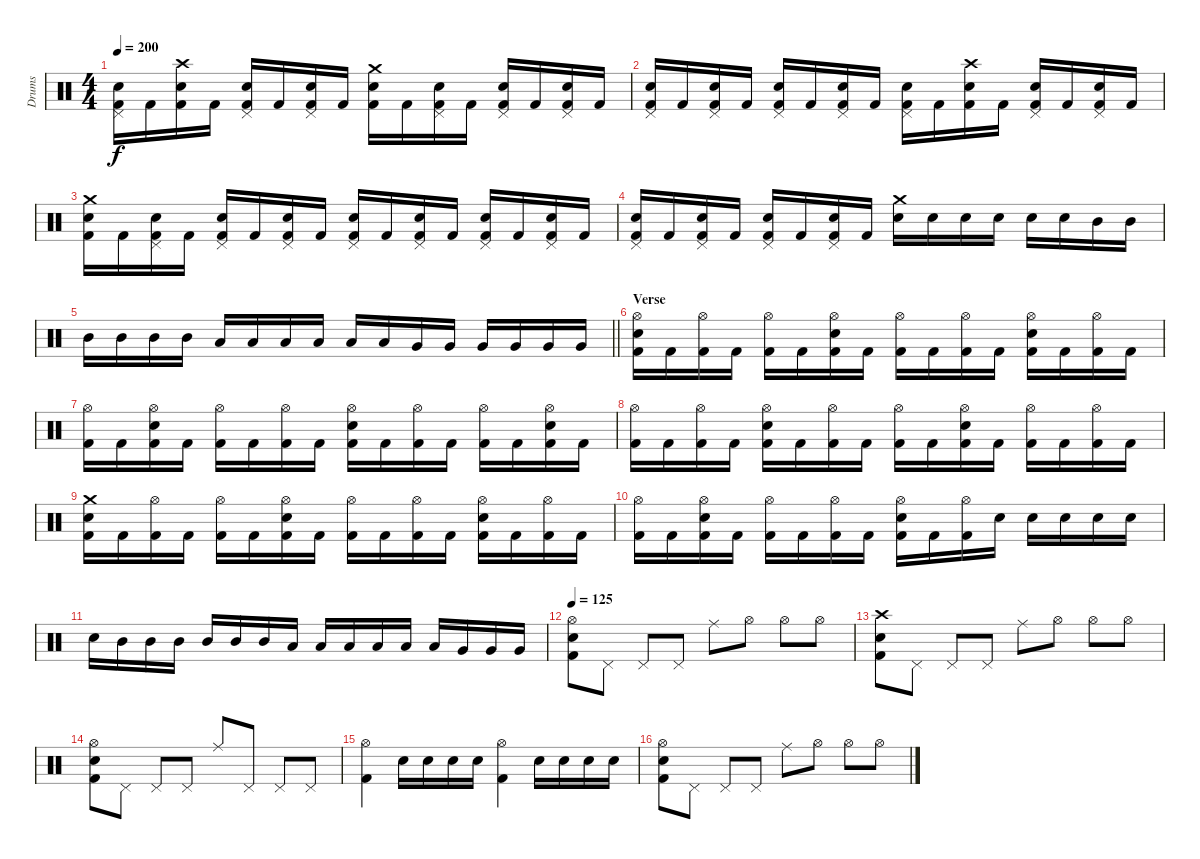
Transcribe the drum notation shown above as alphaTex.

\track ("Drums" "Drums") {instrument percussion}
\staff {score}
\articulation defaults
\ts (4 4)
\tempo 200
\clef neutral
\ks c
("Pedal Hi-Hat (hit)" "Electric Snare (hit)" "Kick (hit) 2").16{dy f} "Kick (hit) 2".16 ("Crash high (hit)" "Electric Snare (hit)" "Kick (hit) 2").16 "Kick (hit) 2".16 ("Pedal Hi-Hat (hit)" "Electric Snare (hit)" "Kick (hit) 2").16 "Kick (hit) 2".16 ("Pedal Hi-Hat (hit)" "Electric Snare (hit)" "Kick (hit) 2").16 "Kick (hit) 2".16 ("Crash medium (hit)" "Electric Snare (hit)" "Kick (hit) 2").16 "Kick (hit) 2".16 ("Pedal Hi-Hat (hit)" "Electric Snare (hit)" "Kick (hit) 2").16 "Kick (hit) 2".16 ("Pedal Hi-Hat (hit)" "Electric Snare (hit)" "Kick (hit) 2").16 "Kick (hit) 2".16 ("Pedal Hi-Hat (hit)" "Electric Snare (hit)" "Kick (hit) 2").16 "Kick (hit) 2".16 |
("Pedal Hi-Hat (hit)" "Electric Snare (hit)" "Kick (hit) 2").16 "Kick (hit) 2".16 ("Pedal Hi-Hat (hit)" "Electric Snare (hit)" "Kick (hit) 2").16 "Kick (hit) 2".16 ("Pedal Hi-Hat (hit)" "Electric Snare (hit)" "Kick (hit) 2").16 "Kick (hit) 2".16 ("Pedal Hi-Hat (hit)" "Electric Snare (hit)" "Kick (hit) 2").16 "Kick (hit) 2".16 ("Pedal Hi-Hat (hit)" "Electric Snare (hit)" "Kick (hit) 2").16 "Kick (hit) 2".16 ("Crash high (hit)" "Electric Snare (hit)" "Kick (hit) 2").16 "Kick (hit) 2".16 ("Pedal Hi-Hat (hit)" "Electric Snare (hit)" "Kick (hit) 2").16 "Kick (hit) 2".16 ("Pedal Hi-Hat (hit)" "Electric Snare (hit)" "Kick (hit) 2").16 "Kick (hit) 2".16 |
("Crash medium (hit)" "Electric Snare (hit)" "Kick (hit) 2").16 "Kick (hit) 2".16 ("Pedal Hi-Hat (hit)" "Electric Snare (hit)" "Kick (hit) 2").16 "Kick (hit) 2".16 ("Pedal Hi-Hat (hit)" "Electric Snare (hit)" "Kick (hit) 2").16 "Kick (hit) 2".16 ("Pedal Hi-Hat (hit)" "Electric Snare (hit)" "Kick (hit) 2").16 "Kick (hit) 2".16 ("Pedal Hi-Hat (hit)" "Electric Snare (hit)" "Kick (hit) 2").16 "Kick (hit) 2".16 ("Pedal Hi-Hat (hit)" "Electric Snare (hit)" "Kick (hit) 2").16 "Kick (hit) 2".16 ("Pedal Hi-Hat (hit)" "Electric Snare (hit)" "Kick (hit) 2").16 "Kick (hit) 2".16 ("Pedal Hi-Hat (hit)" "Electric Snare (hit)" "Kick (hit) 2").16 "Kick (hit) 2".16 |
("Pedal Hi-Hat (hit)" "Electric Snare (hit)" "Kick (hit) 2").16 "Kick (hit) 2".16 ("Pedal Hi-Hat (hit)" "Electric Snare (hit)" "Kick (hit) 2").16 "Kick (hit) 2".16 ("Pedal Hi-Hat (hit)" "Electric Snare (hit)" "Kick (hit) 2").16 "Kick (hit) 2".16 ("Pedal Hi-Hat (hit)" "Electric Snare (hit)" "Kick (hit) 2").16 "Kick (hit) 2".16 ("Crash medium (hit)" "Electric Snare (hit)").16 "Electric Snare (hit)".16 "Electric Snare (hit)".16 "Electric Snare (hit)".16 "Electric Snare (hit)".16 "Electric Snare (hit)".16 "Mid Tom (hit)".16 "Mid Tom (hit)".16 |
\barLineRight lightlight "Mid Tom (hit)".16 "Mid Tom (hit)".16 "Mid Tom (hit)".16 "Mid Tom (hit)".16 "Low Tom (hit)".16 "Low Tom (hit)".16 "Low Tom (hit)".16 "Low Tom (hit)".16 "Low Tom (hit)".16 "Low Tom (hit)".16 "Very Low Tom (hit)".16 "Very Low Tom (hit)".16 "Very Low Tom (hit)".16 "Very Low Tom (hit)".16 "Very Low Tom (hit)".16 "Very Low Tom (hit)".16
|
\section ("" "Verse")
("Hi-Hat (open)" "Electric Snare (hit)" "Kick (hit) 2").16 "Kick (hit) 2".16 ("Hi-Hat (open)" "Kick (hit) 2").16 "Kick (hit) 2".16 ("Hi-Hat (open)" "Kick (hit) 2").16 "Kick (hit) 2".16 ("Hi-Hat (open)" "Electric Snare (hit)" "Kick (hit) 2").16 "Kick (hit) 2".16 ("Hi-Hat (open)" "Kick (hit) 2").16 "Kick (hit) 2".16 ("Hi-Hat (open)" "Kick (hit) 2").16 "Kick (hit) 2".16 ("Hi-Hat (open)" "Electric Snare (hit)" "Kick (hit) 2").16 "Kick (hit) 2".16 ("Hi-Hat (open)" "Kick (hit) 2").16 "Kick (hit) 2".16 |
("Hi-Hat (open)" "Kick (hit) 2").16 "Kick (hit) 2".16 ("Hi-Hat (open)" "Electric Snare (hit)" "Kick (hit) 2").16 "Kick (hit) 2".16 ("Hi-Hat (open)" "Kick (hit) 2").16 "Kick (hit) 2".16 ("Hi-Hat (open)" "Kick (hit) 2").16 "Kick (hit) 2".16 ("Hi-Hat (open)" "Electric Snare (hit)" "Kick (hit) 2").16 "Kick (hit) 2".16 ("Hi-Hat (open)" "Kick (hit) 2").16 "Kick (hit) 2".16 ("Hi-Hat (open)" "Kick (hit) 2").16 "Kick (hit) 2".16 ("Hi-Hat (open)" "Electric Snare (hit)" "Kick (hit) 2").16 "Kick (hit) 2".16 |
("Hi-Hat (open)" "Kick (hit) 2").16 "Kick (hit) 2".16 ("Hi-Hat (open)" "Kick (hit) 2").16 "Kick (hit) 2".16 ("Hi-Hat (open)" "Electric Snare (hit)" "Kick (hit) 2").16 "Kick (hit) 2".16 ("Hi-Hat (open)" "Kick (hit) 2").16 "Kick (hit) 2".16 ("Hi-Hat (open)" "Kick (hit) 2").16 "Kick (hit) 2".16 ("Hi-Hat (open)" "Electric Snare (hit)" "Kick (hit) 2").16 "Kick (hit) 2".16 ("Hi-Hat (open)" "Kick (hit) 2").16 "Kick (hit) 2".16 ("Hi-Hat (open)" "Kick (hit) 2").16 "Kick (hit) 2".16 |
("Crash medium (hit)" "Electric Snare (hit)" "Kick (hit) 2").16 "Kick (hit) 2".16 ("Hi-Hat (open)" "Kick (hit) 2").16 "Kick (hit) 2".16 ("Hi-Hat (open)" "Kick (hit) 2").16 "Kick (hit) 2".16 ("Hi-Hat (open)" "Electric Snare (hit)" "Kick (hit) 2").16 "Kick (hit) 2".16 ("Hi-Hat (open)" "Kick (hit) 2").16 "Kick (hit) 2".16 ("Hi-Hat (open)" "Kick (hit) 2").16 "Kick (hit) 2".16 ("Hi-Hat (open)" "Electric Snare (hit)" "Kick (hit) 2").16 "Kick (hit) 2".16 ("Hi-Hat (open)" "Kick (hit) 2").16 "Kick (hit) 2".16 |
("Hi-Hat (open)" "Kick (hit) 2").16 "Kick (hit) 2".16 ("Hi-Hat (open)" "Electric Snare (hit)" "Kick (hit) 2").16 "Kick (hit) 2".16 ("Hi-Hat (open)" "Kick (hit) 2").16 "Kick (hit) 2".16 ("Hi-Hat (open)" "Kick (hit) 2").16 "Kick (hit) 2".16 ("Hi-Hat (open)" "Electric Snare (hit)" "Kick (hit) 2").16 "Kick (hit) 2".16 ("Hi-Hat (open)" "Kick (hit) 2").16 "Electric Snare (hit)".16 "Electric Snare (hit)".16 "Electric Snare (hit)".16 "Electric Snare (hit)".16 "Electric Snare (hit)".16 |
"Electric Snare (hit)".16 "Mid Tom (hit)".16 "Mid Tom (hit)".16 "Mid Tom (hit)".16 "Mid Tom (hit)".16 "Mid Tom (hit)".16 "Mid Tom (hit)".16 "Low Tom (hit)".16 "Low Tom (hit)".16 "Low Tom (hit)".16 "Low Tom (hit)".16 "Low Tom (hit)".16 "Low Tom (hit)".16 "Very Low Tom (hit)".16 "Very Low Tom (hit)".16 "Very Low Tom (hit)".16 |
\tempo 125
("Hi-Hat (open)" "Electric Snare (hit)" "Kick (hit) 2").8 "Pedal Hi-Hat (hit)".8 "Pedal Hi-Hat (hit)".8 "Pedal Hi-Hat (hit)".8 "Ride (middle)".8 "Hi-Hat (open)".8 "Hi-Hat (open)".8 "Hi-Hat (open)".8 |
("Crash high (hit)" "Electric Snare (hit)" "Kick (hit) 2").8 "Pedal Hi-Hat (hit)".8 "Pedal Hi-Hat (hit)".8 "Pedal Hi-Hat (hit)".8 "Ride (middle)".8 "Hi-Hat (open)".8 "Hi-Hat (open)".8 "Hi-Hat (open)".8 |
("Hi-Hat (open)" "Electric Snare (hit)" "Kick (hit) 2").8 "Pedal Hi-Hat (hit)".8 "Pedal Hi-Hat (hit)".8 "Pedal Hi-Hat (hit)".8 "Ride (middle)".8 "Pedal Hi-Hat (hit)".8 "Pedal Hi-Hat (hit)".8 "Pedal Hi-Hat (hit)".8 |
("Hi-Hat (open)" "Kick (hit) 2").4 "Electric Snare (hit)".16 "Electric Snare (hit)".16 "Electric Snare (hit)".16 "Electric Snare (hit)".16 ("Hi-Hat (open)" "Kick (hit) 2").4 "Electric Snare (hit)".16 "Electric Snare (hit)".16 "Electric Snare (hit)".16 "Electric Snare (hit)".16 |
("Hi-Hat (open)" "Electric Snare (hit)" "Kick (hit) 2").8 "Pedal Hi-Hat (hit)".8 "Pedal Hi-Hat (hit)".8 "Pedal Hi-Hat (hit)".8 "Ride (middle)".8 "Hi-Hat (open)".8 "Hi-Hat (open)".8 "Hi-Hat (open)".8
